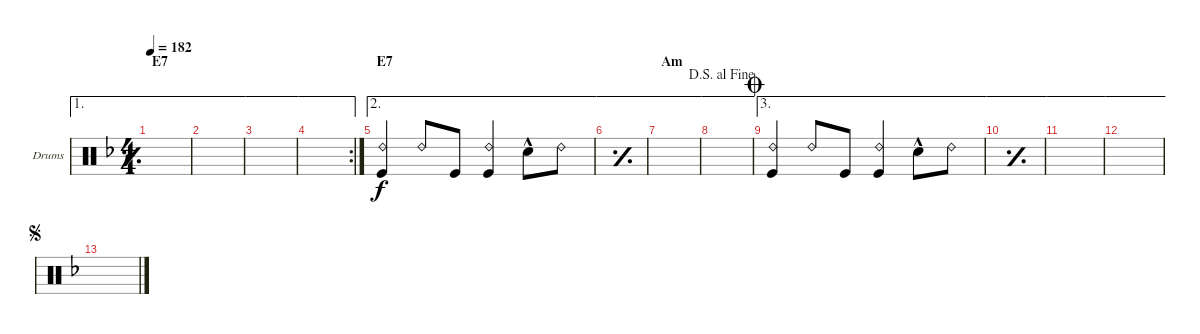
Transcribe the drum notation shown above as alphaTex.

\defaultSystemsLayout 4
\bracketExtendMode groupsimilarinstruments
\firstSystemTrackNameOrientation horizontal
\otherSystemsTrackNameOrientation horizontal
\track ("Drumkit" "Drums") {instrument percussion}
\staff {score}
\articulation defaults
\ae 1
\ts (4 4)
\section ("" "E7")
\tempo 182
\clef neutral
\simile simple
\ks f
|
\ae 1
|
\ae 1
|
\ae 1
\rc 2
|
\ae 2
\section ("" "E7")
("Kick (hit)" "Ride (bell) 2").4 "Ride (bell) 2".8 "Kick (hit)".8 ("Kick (hit)" "Ride (bell) 2").4 "Snare (hit) 2"{hac}.8 "Ride (bell) 2".8 |
\ae 2
\simile simple
|
\ae 2
\section ("" "Am")
|
\ae 2
\jump dalsegnoalfine
|
\ae 3
\jump coda
\simile none
("Kick (hit)" "Ride (bell) 2").4 "Ride (bell) 2".8 "Kick (hit)".8 ("Kick (hit)" "Ride (bell) 2").4 "Snare (hit) 2"{hac}.8 "Ride (bell) 2".8 |
\ae 3
\simile simple
|
\ae 3
|
\ae 3
|
\jump segno
